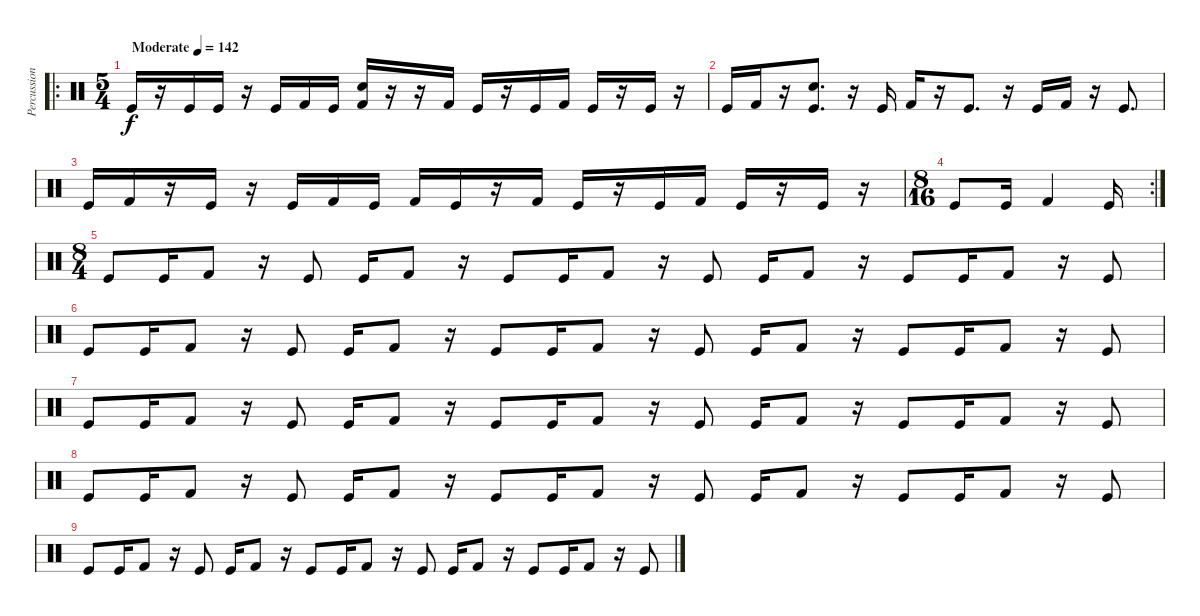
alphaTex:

\track ("Percussion" "Percussion") {instrument percussion}
\staff {score}
\articulation defaults
\ro
\ts (5 4)
\tempo (142 "Moderate")
\clef neutral
\ks c "Kick (hit)".16{dy f}
r.16 "Kick (hit)".16 "Kick (hit)".16 r.16 "Kick (hit)".16 "Kick (hit) 2".16 "Kick (hit)".16 ("Electric Snare (hit)" "Kick (hit) 2").16 r.16 r.16 "Kick (hit) 2".16 "Kick (hit)".16 r.16 "Kick (hit)".16 "Kick (hit) 2".16 "Kick (hit)".16 r.16 "Kick (hit)".16 r.16 |
"Kick (hit)".16 "Kick (hit) 2".16 r.16 ("Electric Snare (hit)" "Kick (hit)").8{d} r.16 "Kick (hit)".16 "Kick (hit) 2".16 r.16 "Kick (hit)".8{d} r.16 "Kick (hit)".16 "Kick (hit) 2".16 r.16 "Kick (hit)".8{d} |
"Kick (hit)".16 "Kick (hit) 2".16 r.16 "Kick (hit)".16 r.16 "Kick (hit)".16 "Kick (hit) 2".16 "Kick (hit)".16 "Kick (hit) 2".16 "Kick (hit)".16 r.16 "Kick (hit) 2".16 "Kick (hit)".16 r.16 "Kick (hit)".16 "Kick (hit) 2".16 "Kick (hit)".16 r.16 "Kick (hit)".16 r.16 |
\rc 2
\ts (8 16)
"Kick (hit)".8 "Kick (hit)".16 "Kick (hit) 2".4 "Kick (hit)".16 |
\ts (8 4)
"Kick (hit)".8 "Kick (hit)".16 "Kick (hit) 2".8 r.16 "Kick (hit)".8 "Kick (hit)".16 "Kick (hit) 2".8 r.16 "Kick (hit)".8 "Kick (hit)".16 "Kick (hit) 2".8 r.16 "Kick (hit)".8 "Kick (hit)".16 "Kick (hit) 2".8 r.16 "Kick (hit)".8 "Kick (hit)".16 "Kick (hit) 2".8 r.16 "Kick (hit)".8 |
"Kick (hit)".8 "Kick (hit)".16 "Kick (hit) 2".8 r.16 "Kick (hit)".8 "Kick (hit)".16 "Kick (hit) 2".8 r.16 "Kick (hit)".8 "Kick (hit)".16 "Kick (hit) 2".8 r.16 "Kick (hit)".8 "Kick (hit)".16 "Kick (hit) 2".8 r.16 "Kick (hit)".8 "Kick (hit)".16 "Kick (hit) 2".8 r.16 "Kick (hit)".8 |
"Kick (hit)".8 "Kick (hit)".16 "Kick (hit) 2".8 r.16 "Kick (hit)".8 "Kick (hit)".16 "Kick (hit) 2".8 r.16 "Kick (hit)".8 "Kick (hit)".16 "Kick (hit) 2".8 r.16 "Kick (hit)".8 "Kick (hit)".16 "Kick (hit) 2".8 r.16 "Kick (hit)".8 "Kick (hit)".16 "Kick (hit) 2".8 r.16 "Kick (hit)".8 |
"Kick (hit)".8 "Kick (hit)".16 "Kick (hit) 2".8 r.16 "Kick (hit)".8 "Kick (hit)".16 "Kick (hit) 2".8 r.16 "Kick (hit)".8 "Kick (hit)".16 "Kick (hit) 2".8 r.16 "Kick (hit)".8 "Kick (hit)".16 "Kick (hit) 2".8 r.16 "Kick (hit)".8 "Kick (hit)".16 "Kick (hit) 2".8 r.16 "Kick (hit)".8 |
"Kick (hit)".8 "Kick (hit)".16 "Kick (hit) 2".8 r.16 "Kick (hit)".8 "Kick (hit)".16 "Kick (hit) 2".8 r.16 "Kick (hit)".8 "Kick (hit)".16 "Kick (hit) 2".8 r.16 "Kick (hit)".8 "Kick (hit)".16 "Kick (hit) 2".8 r.16 "Kick (hit)".8 "Kick (hit)".16 "Kick (hit) 2".8 r.16 "Kick (hit)".8
